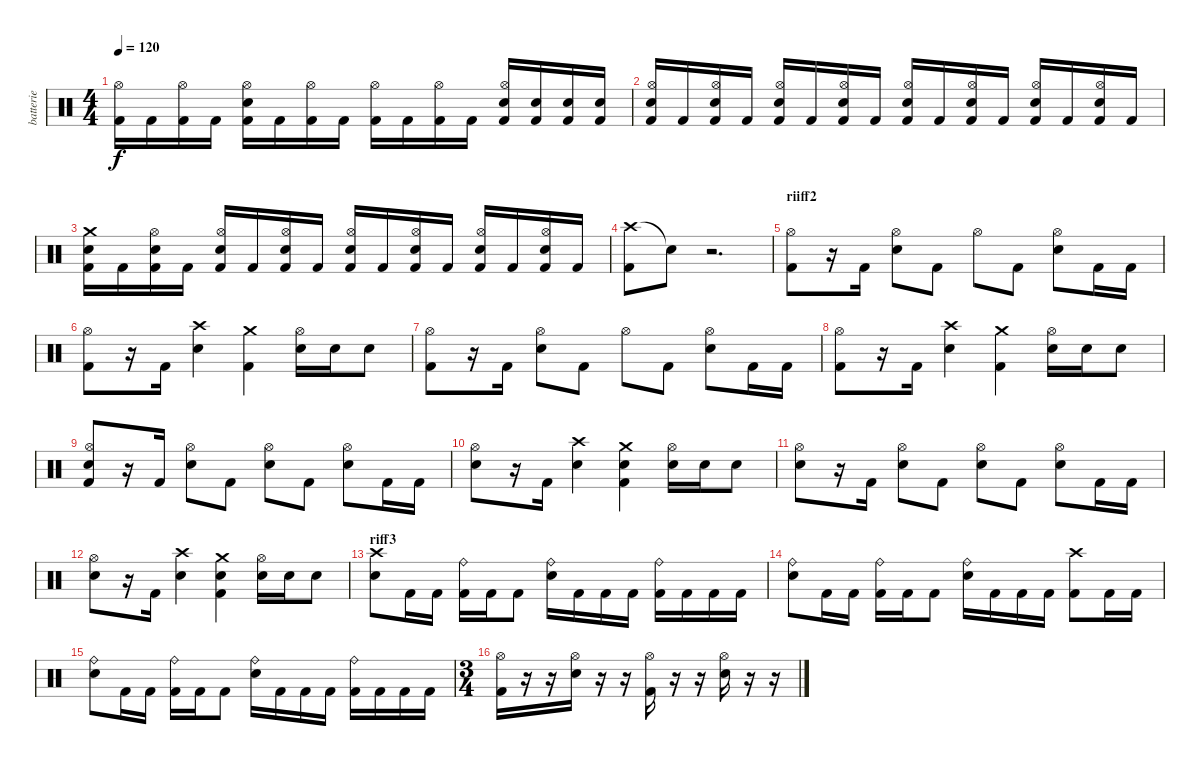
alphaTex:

\track ("batterie" "batterie") {instrument percussion}
\staff {score}
\articulation defaults
\ts (4 4)
\tempo 120
\clef neutral
\ks c
("Kick (hit) 2" "Hi-Hat (open)").16{dy f} "Kick (hit) 2".16 ("Kick (hit) 2" "Hi-Hat (open)").16 "Kick (hit) 2".16 ("Snare (hit) 2" "Kick (hit) 2" "Hi-Hat (open)").16 "Kick (hit) 2".16 ("Kick (hit) 2" "Hi-Hat (open)").16 "Kick (hit) 2".16 ("Kick (hit) 2" "Hi-Hat (open)").16 "Kick (hit) 2".16 ("Kick (hit) 2" "Hi-Hat (open)").16 "Kick (hit) 2".16 ("Snare (hit) 2" "Kick (hit) 2" "Hi-Hat (open)").16 ("Snare (hit) 2" "Kick (hit) 2").16 ("Snare (hit) 2" "Kick (hit) 2").16 ("Snare (hit) 2" "Kick (hit) 2").16 |
("Snare (hit) 2" "Kick (hit) 2" "Hi-Hat (open)").16 "Kick (hit) 2".16 ("Snare (hit) 2" "Kick (hit) 2" "Hi-Hat (open)").16 "Kick (hit) 2".16 ("Snare (hit) 2" "Kick (hit) 2" "Hi-Hat (open)").16 "Kick (hit) 2".16 ("Snare (hit) 2" "Kick (hit) 2" "Hi-Hat (open)").16 "Kick (hit) 2".16 ("Snare (hit) 2" "Kick (hit) 2" "Hi-Hat (open)").16 "Kick (hit) 2".16 ("Snare (hit) 2" "Kick (hit) 2" "Hi-Hat (open)").16 "Kick (hit) 2".16 ("Snare (hit) 2" "Kick (hit) 2" "Hi-Hat (open)").16 "Kick (hit) 2".16 ("Snare (hit) 2" "Kick (hit) 2" "Hi-Hat (open)").16 "Kick (hit) 2".16 |
("Crash medium (hit)" "Snare (hit) 2" "Kick (hit) 2").16 "Kick (hit) 2".16 ("Snare (hit) 2" "Kick (hit) 2" "Hi-Hat (open)").16 "Kick (hit) 2".16 ("Snare (hit) 2" "Kick (hit) 2" "Hi-Hat (open)").16 "Kick (hit) 2".16 ("Snare (hit) 2" "Kick (hit) 2" "Hi-Hat (open)").16 "Kick (hit) 2".16 ("Snare (hit) 2" "Kick (hit) 2" "Hi-Hat (open)").16 "Kick (hit) 2".16 ("Snare (hit) 2" "Kick (hit) 2" "Hi-Hat (open)").16 "Kick (hit) 2".16 ("Snare (hit) 2" "Kick (hit) 2" "Hi-Hat (open)").16 "Kick (hit) 2".16 ("Snare (hit) 2" "Kick (hit) 2" "Hi-Hat (open)").16 "Kick (hit) 2".16 |
("Crash high (hit)" "Kick (hit) 2").8 "Snare (hit)"{t}.8 r.2{d} |
\section ("" "riiff2")
("Kick (hit) 2" "Hi-Hat (open)").8 r.16 "Kick (hit) 2".16 ("Snare (hit) 2" "Hi-Hat (open)").8 "Kick (hit) 2".8 "Hi-Hat (open)".8 "Kick (hit) 2".8 ("Snare (hit) 2" "Hi-Hat (open)").8 "Kick (hit) 2".16 "Kick (hit) 2".16 |
("Kick (hit) 2" "Hi-Hat (open)").8 r.16 "Kick (hit) 2".16 ("Crash high (hit)" "Snare (hit) 2").4 ("Crash medium (hit)" "Kick (hit) 2").4 ("Snare (hit) 2" "Hi-Hat (open)").16 "Snare (hit) 2".16 "Snare (hit) 2".8 |
("Kick (hit) 2" "Hi-Hat (open)").8 r.16 "Kick (hit) 2".16 ("Snare (hit) 2" "Hi-Hat (open)").8 "Kick (hit) 2".8 "Hi-Hat (open)".8 "Kick (hit) 2".8 ("Snare (hit) 2" "Hi-Hat (open)").8 "Kick (hit) 2".16 "Kick (hit) 2".16 |
("Kick (hit) 2" "Hi-Hat (open)").8 r.16 "Kick (hit) 2".16 ("Crash high (hit)" "Snare (hit) 2").4 ("Crash medium (hit)" "Kick (hit) 2").4 ("Snare (hit) 2" "Hi-Hat (open)").16 "Snare (hit) 2".16 "Snare (hit) 2".8 |
("Snare (hit) 2" "Kick (hit) 2" "Hi-Hat (open)").8 r.16 "Kick (hit) 2".16 ("Snare (hit) 2" "Hi-Hat (open)").8 "Kick (hit) 2".8 ("Snare (hit) 2" "Hi-Hat (open)").8 "Kick (hit) 2".8 ("Snare (hit) 2" "Hi-Hat (open)").8 "Kick (hit) 2".16 "Kick (hit) 2".16 |
("Snare (hit) 2" "Hi-Hat (open)").8 r.16 "Kick (hit) 2".16 ("Crash high (hit)" "Snare (hit) 2").4 ("Crash medium (hit)" "Snare (hit) 2" "Kick (hit) 2").4 ("Snare (hit) 2" "Hi-Hat (open)").16 "Snare (hit) 2".16 "Snare (hit) 2".8 |
("Snare (hit) 2" "Hi-Hat (open)").8 r.16 "Kick (hit) 2".16 ("Snare (hit) 2" "Hi-Hat (open)").8 "Kick (hit) 2".8 ("Snare (hit) 2" "Hi-Hat (open)").8 "Kick (hit) 2".8 ("Snare (hit) 2" "Hi-Hat (open)").8 "Kick (hit) 2".16 "Kick (hit) 2".16 |
("Snare (hit) 2" "Hi-Hat (open)").8 r.16 "Kick (hit) 2".16 ("Crash high (hit)" "Snare (hit) 2").4 ("Crash medium (hit)" "Snare (hit) 2" "Kick (hit) 2").4 ("Snare (hit) 2" "Hi-Hat (open)").16 "Snare (hit) 2".16 "Snare (hit) 2".8 |
\section ("" "riff3")
("Crash high (hit)" "Snare (hit) 2").8 "Kick (hit) 2".16 "Kick (hit) 2".16 ("Kick (hit) 2" "Ride (bell)").16 "Kick (hit) 2".16 "Kick (hit) 2".8 ("Snare (hit) 2" "Ride (bell)").16 "Kick (hit) 2".16 "Kick (hit) 2".16 "Kick (hit) 2".16 ("Kick (hit) 2" "Ride (bell)").16 "Kick (hit) 2".16 "Kick (hit) 2".16 "Kick (hit) 2".16 |
("Snare (hit) 2" "Ride (bell)").8 "Kick (hit) 2".16 "Kick (hit) 2".16 ("Kick (hit) 2" "Ride (bell)").16 "Kick (hit) 2".16 "Kick (hit) 2".8 ("Snare (hit) 2" "Ride (bell)").16 "Kick (hit) 2".16 "Kick (hit) 2".16 "Kick (hit) 2".16 ("Crash high (hit)" "Kick (hit) 2").8 "Kick (hit) 2".16 "Kick (hit) 2".16 |
("Snare (hit) 2" "Ride (bell)").8 "Kick (hit) 2".16 "Kick (hit) 2".16 ("Kick (hit) 2" "Ride (bell)").16 "Kick (hit) 2".16 "Kick (hit) 2".8 ("Snare (hit) 2" "Ride (bell)").16 "Kick (hit) 2".16 "Kick (hit) 2".16 "Kick (hit) 2".16 ("Kick (hit) 2" "Ride (bell)").16 "Kick (hit) 2".16 "Kick (hit) 2".16 "Kick (hit) 2".16 |
\ts (3 4)
("Kick (hit) 2" "Hi-Hat (open)").16 r.16 r.16 ("Snare (hit) 2" "Hi-Hat (open)").16 r.16 r.16 ("Kick (hit) 2" "Hi-Hat (open)").16 r.16 r.16 ("Snare (hit) 2" "Hi-Hat (open)").16 r.16 r.16
